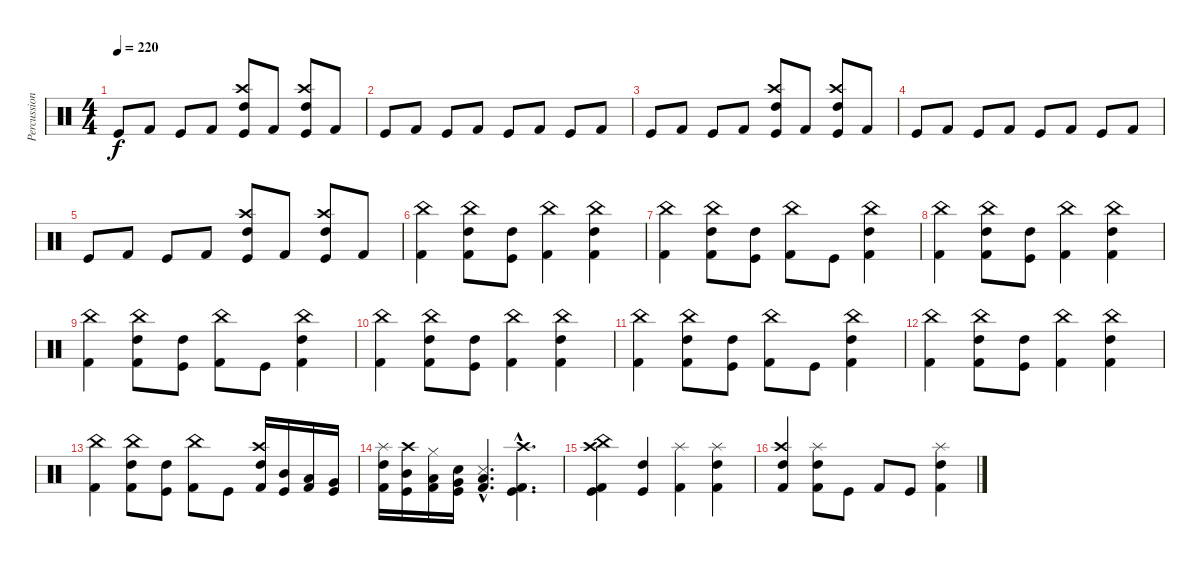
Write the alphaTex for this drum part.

\track ("Percussions" "Percussion") {instrument percussion}
\staff {score}
\articulation defaults
\ts (4 4)
\tempo 220
\clef neutral
\ks c "Kick (hit)".8{dy f} "Kick (hit) 2".8 "Kick (hit)".8 "Kick (hit) 2".8
("Kick (hit)" "Crash high (hit)" "High Tom (hit)").8 "Kick (hit) 2".8 ("Kick (hit)" "Crash high (hit)" "High Tom (hit)").8 "Kick (hit) 2".8 |
"Kick (hit)".8 "Kick (hit) 2".8 "Kick (hit)".8 "Kick (hit) 2".8 "Kick (hit)".8 "Kick (hit) 2".8 "Kick (hit)".8 "Kick (hit) 2".8 |
"Kick (hit)".8 "Kick (hit) 2".8 "Kick (hit)".8 "Kick (hit) 2".8 ("Kick (hit)" "Crash high (hit)" "High Tom (hit)").8 "Kick (hit) 2".8 ("Kick (hit)" "Crash high (hit)" "High Tom (hit)").8 "Kick (hit) 2".8 |
"Kick (hit)".8 "Kick (hit) 2".8 "Kick (hit)".8 "Kick (hit) 2".8 "Kick (hit)".8 "Kick (hit) 2".8 "Kick (hit)".8 "Kick (hit) 2".8 |
"Kick (hit)".8 "Kick (hit) 2".8 "Kick (hit)".8 "Kick (hit) 2".8 ("Kick (hit)" "Crash high (hit)" "High Tom (hit)").8 "Kick (hit) 2".8 ("Kick (hit)" "Crash high (hit)" "High Tom (hit)").8 "Kick (hit) 2".8 |
("Kick (hit) 2" "China (hit)").4 ("Kick (hit) 2" "China (hit)" "High Tom (hit)").8 ("Kick (hit)" "High Tom (hit)").8 ("Kick (hit) 2" "China (hit)").4 ("Kick (hit) 2" "China (hit)" "High Tom (hit)").4 |
("Kick (hit) 2" "China (hit)").4 ("Kick (hit) 2" "China (hit)" "High Tom (hit)").8 ("Kick (hit)" "High Tom (hit)").8 ("Kick (hit) 2" "China (hit)").8 "Kick (hit)".8 ("Kick (hit) 2" "China (hit)" "High Tom (hit)").4 |
("Kick (hit) 2" "China (hit)").4 ("Kick (hit) 2" "China (hit)" "High Tom (hit)").8 ("Kick (hit)" "High Tom (hit)").8 ("Kick (hit) 2" "China (hit)").4 ("Kick (hit) 2" "China (hit)" "High Tom (hit)").4 |
("Kick (hit) 2" "China (hit)").4 ("Kick (hit) 2" "China (hit)" "High Tom (hit)").8 ("Kick (hit)" "High Tom (hit)").8 ("Kick (hit) 2" "China (hit)").8 "Kick (hit)".8 ("Kick (hit) 2" "China (hit)" "High Tom (hit)").4 |
("Kick (hit) 2" "China (hit)").4 ("Kick (hit) 2" "China (hit)" "High Tom (hit)").8 ("Kick (hit)" "High Tom (hit)").8 ("Kick (hit) 2" "China (hit)").4 ("Kick (hit) 2" "China (hit)" "High Tom (hit)").4 |
("Kick (hit) 2" "China (hit)").4 ("Kick (hit) 2" "China (hit)" "High Tom (hit)").8 ("Kick (hit)" "High Tom (hit)").8 ("Kick (hit) 2" "China (hit)").8 "Kick (hit)".8 ("Kick (hit) 2" "China (hit)" "High Tom (hit)").4 |
("Kick (hit) 2" "China (hit)").4 ("Kick (hit) 2" "China (hit)" "High Tom (hit)").8 ("Kick (hit)" "High Tom (hit)").8 ("Kick (hit) 2" "China (hit)").4 ("Kick (hit) 2" "China (hit)" "High Tom (hit)").4 |
("Kick (hit) 2" "China (hit)").4 ("Kick (hit) 2" "China (hit)" "High Tom (hit)").8 ("Kick (hit)" "High Tom (hit)").8 ("Kick (hit) 2" "China (hit)").8 "Kick (hit)".8 ("Kick (hit) 2" "High Tom (hit)" "Crash high (hit)").16 ("Kick (hit)" "Mid Tom (hit)").16 ("Kick (hit) 2" "Low Tom (hit)").16 ("Kick (hit)" "Very Low Tom (hit)").16 |
("Kick (hit) 2" "High Tom (hit)" "Splash (hit)").16 ("Kick (hit)" "Mid Tom (hit)" "Crash high (hit)").16 ("Kick (hit) 2" "Low Tom (hit)" "Hi-Hat (closed)").16 ("Kick (hit)" "Very Low Tom (hit)" "Snare (hit) 2").16 ("Kick (hit) 2"{hac} "Low Floor Tom (hit)"{hac} "Snare (side stick) 3"{hac}).4{d} ("Kick (hit)"{hac} "Kick (hit) 2"{hac} "Crash high (hit)"{hac}).4{d} |
("Kick (hit)" "Kick (hit) 2" "Crash high (hit)" "China (hit)").4 ("Kick (hit)" "High Tom (hit)").4 ("Kick (hit) 2" "Splash (hit)").4 ("Kick (hit) 2" "Splash (hit)" "High Tom (hit)").4 |
("Kick (hit) 2" "Crash high (hit)" "High Tom (hit)").4 ("Kick (hit) 2" "Splash (hit)" "High Tom (hit)").8 "Kick (hit)".8 "Kick (hit) 2".8 "Kick (hit)".8 ("Kick (hit) 2" "Splash (hit)" "High Tom (hit)").4
